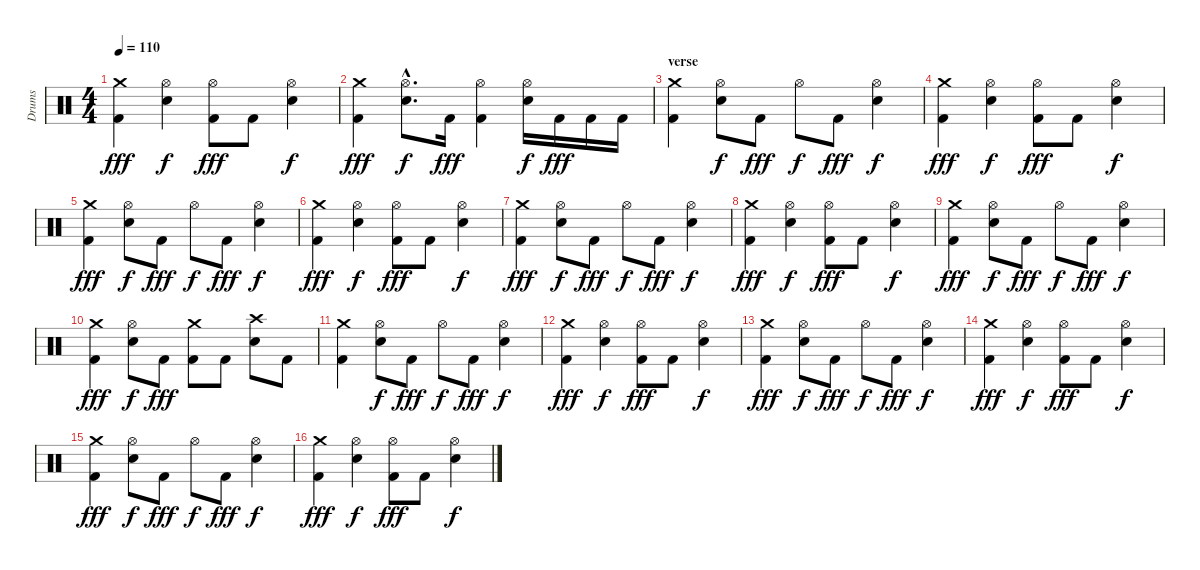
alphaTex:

\track ("Drums" "Drums") {instrument percussion}
\staff {score}
\articulation defaults
\ts (4 4)
\tempo 110
\clef neutral
\ks c
("Crash medium (hit)" "Kick (hit) 2").4{dy fff} ("Hi-Hat (open)" "Electric Snare (hit)").4{dy f} ("Hi-Hat (open)" "Kick (hit) 2").8{dy fff} "Kick (hit) 2".8 ("Hi-Hat (open)" "Electric Snare (hit)").4{dy f} |
("Crash medium (hit)" "Kick (hit) 2").4{dy fff} ("Hi-Hat (open)"{hac} "Electric Snare (hit)"{hac}).8{d dy f} "Kick (hit) 2".16{dy fff} ("Hi-Hat (open)" "Kick (hit) 2").4 ("Hi-Hat (open)" "Electric Snare (hit)").16{dy f} "Kick (hit) 2".16{dy fff} "Kick (hit) 2".16 "Kick (hit) 2".16 |
\section ("" "verse")
("Crash medium (hit)" "Kick (hit) 2").4 ("Hi-Hat (open)" "Electric Snare (hit)").8{dy f} "Kick (hit) 2".8{dy fff} "Hi-Hat (open)".8{dy f} "Kick (hit) 2".8{dy fff} ("Hi-Hat (open)" "Electric Snare (hit)").4{dy f} |
("Crash medium (hit)" "Kick (hit) 2").4{dy fff} ("Hi-Hat (open)" "Electric Snare (hit)").4{dy f} ("Hi-Hat (open)" "Kick (hit) 2").8{dy fff} "Kick (hit) 2".8 ("Hi-Hat (open)" "Electric Snare (hit)").4{dy f} |
("Crash medium (hit)" "Kick (hit) 2").4{dy fff} ("Hi-Hat (open)" "Electric Snare (hit)").8{dy f} "Kick (hit) 2".8{dy fff} "Hi-Hat (open)".8{dy f} "Kick (hit) 2".8{dy fff} ("Hi-Hat (open)" "Electric Snare (hit)").4{dy f} |
("Crash medium (hit)" "Kick (hit) 2").4{dy fff} ("Hi-Hat (open)" "Electric Snare (hit)").4{dy f} ("Hi-Hat (open)" "Kick (hit) 2").8{dy fff} "Kick (hit) 2".8 ("Hi-Hat (open)" "Electric Snare (hit)").4{dy f} |
("Crash medium (hit)" "Kick (hit) 2").4{dy fff} ("Hi-Hat (open)" "Electric Snare (hit)").8{dy f} "Kick (hit) 2".8{dy fff} "Hi-Hat (open)".8{dy f} "Kick (hit) 2".8{dy fff} ("Hi-Hat (open)" "Electric Snare (hit)").4{dy f} |
("Crash medium (hit)" "Kick (hit) 2").4{dy fff} ("Hi-Hat (open)" "Electric Snare (hit)").4{dy f} ("Hi-Hat (open)" "Kick (hit) 2").8{dy fff} "Kick (hit) 2".8 ("Hi-Hat (open)" "Electric Snare (hit)").4{dy f} |
("Crash medium (hit)" "Kick (hit) 2").4{dy fff} ("Hi-Hat (open)" "Electric Snare (hit)").8{dy f} "Kick (hit) 2".8{dy fff} "Hi-Hat (open)".8{dy f} "Kick (hit) 2".8{dy fff} ("Hi-Hat (open)" "Electric Snare (hit)").4{dy f} |
("Crash medium (hit)" "Kick (hit) 2").4{dy fff} ("Hi-Hat (open)" "Electric Snare (hit)").8{dy f} "Kick (hit) 2".8{dy fff} ("Crash medium (hit)" "Kick (hit) 2").8 "Kick (hit) 2".8 ("Crash high (hit)" "Electric Snare (hit)").8 "Kick (hit) 2".8 |
("Crash medium (hit)" "Kick (hit) 2").4 ("Hi-Hat (open)" "Electric Snare (hit)").8{dy f} "Kick (hit) 2".8{dy fff} "Hi-Hat (open)".8{dy f} "Kick (hit) 2".8{dy fff} ("Hi-Hat (open)" "Electric Snare (hit)").4{dy f} |
("Crash medium (hit)" "Kick (hit) 2").4{dy fff} ("Hi-Hat (open)" "Electric Snare (hit)").4{dy f} ("Hi-Hat (open)" "Kick (hit) 2").8{dy fff} "Kick (hit) 2".8 ("Hi-Hat (open)" "Electric Snare (hit)").4{dy f} |
("Crash medium (hit)" "Kick (hit) 2").4{dy fff} ("Hi-Hat (open)" "Electric Snare (hit)").8{dy f} "Kick (hit) 2".8{dy fff} "Hi-Hat (open)".8{dy f} "Kick (hit) 2".8{dy fff} ("Hi-Hat (open)" "Electric Snare (hit)").4{dy f} |
("Crash medium (hit)" "Kick (hit) 2").4{dy fff} ("Hi-Hat (open)" "Electric Snare (hit)").4{dy f} ("Hi-Hat (open)" "Kick (hit) 2").8{dy fff} "Kick (hit) 2".8 ("Hi-Hat (open)" "Electric Snare (hit)").4{dy f} |
("Crash medium (hit)" "Kick (hit) 2").4{dy fff} ("Hi-Hat (open)" "Electric Snare (hit)").8{dy f} "Kick (hit) 2".8{dy fff} "Hi-Hat (open)".8{dy f} "Kick (hit) 2".8{dy fff} ("Hi-Hat (open)" "Electric Snare (hit)").4{dy f} |
("Crash medium (hit)" "Kick (hit) 2").4{dy fff} ("Hi-Hat (open)" "Electric Snare (hit)").4{dy f} ("Hi-Hat (open)" "Kick (hit) 2").8{dy fff} "Kick (hit) 2".8 ("Hi-Hat (open)" "Electric Snare (hit)").4{dy f}
